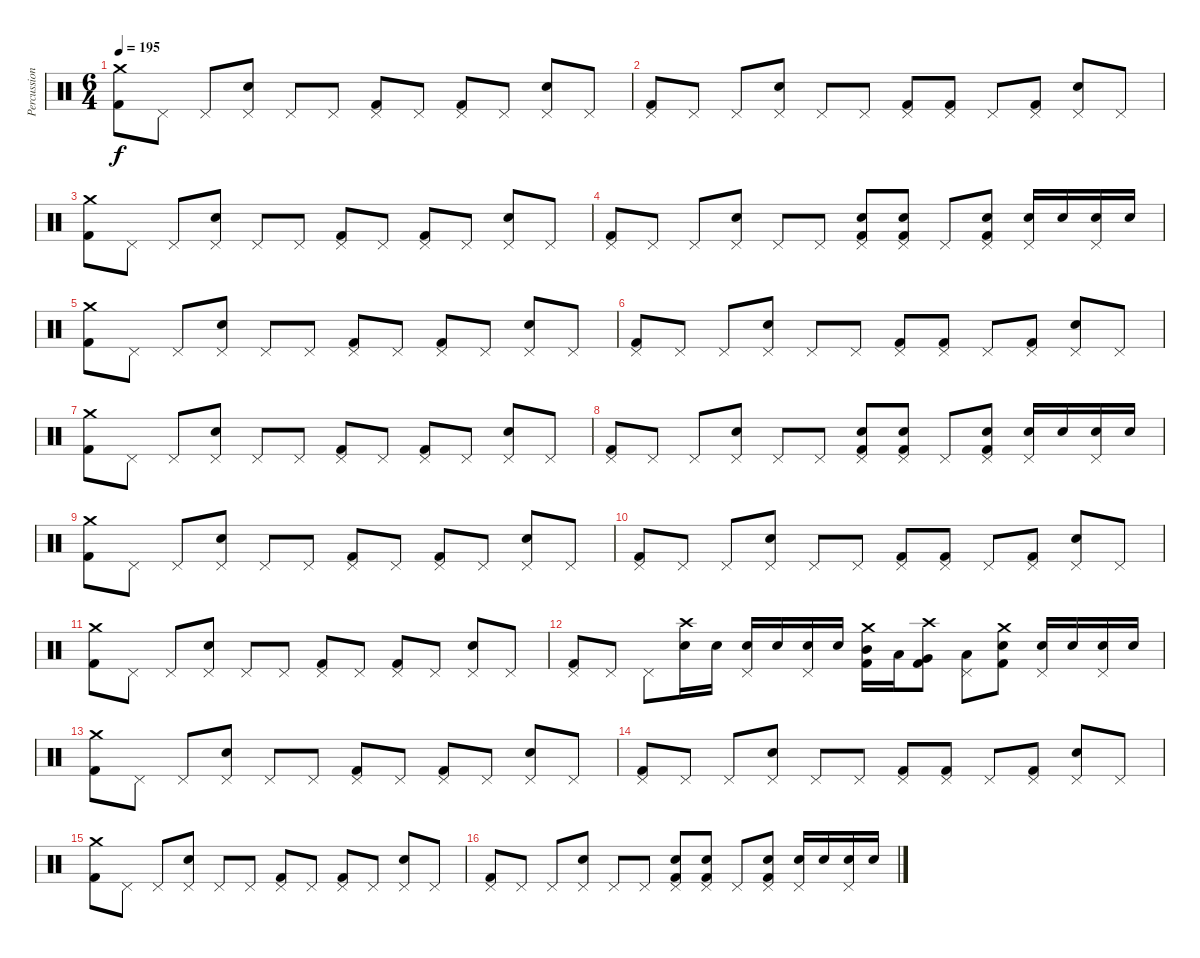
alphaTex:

\track ("Percussion" "Percussion") {instrument percussion}
\staff {score}
\articulation defaults
\ts (6 4)
\tempo 195
\clef neutral
\ks c
("Crash medium (hit)" "Kick (hit) 2").8{dy f} "Pedal Hi-Hat (hit)".8 "Pedal Hi-Hat (hit)".8 ("Pedal Hi-Hat (hit)" "Electric Snare (hit)").8 "Pedal Hi-Hat (hit)".8 "Pedal Hi-Hat (hit)".8 ("Pedal Hi-Hat (hit)" "Kick (hit) 2").8 "Pedal Hi-Hat (hit)".8 ("Pedal Hi-Hat (hit)" "Kick (hit) 2").8 "Pedal Hi-Hat (hit)".8 ("Pedal Hi-Hat (hit)" "Electric Snare (hit)").8 "Pedal Hi-Hat (hit)".8 |
("Pedal Hi-Hat (hit)" "Kick (hit) 2").8 "Pedal Hi-Hat (hit)".8 "Pedal Hi-Hat (hit)".8 ("Pedal Hi-Hat (hit)" "Electric Snare (hit)").8 "Pedal Hi-Hat (hit)".8 "Pedal Hi-Hat (hit)".8 ("Pedal Hi-Hat (hit)" "Kick (hit) 2").8 ("Pedal Hi-Hat (hit)" "Kick (hit) 2").8 "Pedal Hi-Hat (hit)".8 ("Pedal Hi-Hat (hit)" "Kick (hit) 2").8 ("Pedal Hi-Hat (hit)" "Electric Snare (hit)").8 "Pedal Hi-Hat (hit)".8 |
("Crash medium (hit)" "Kick (hit) 2").8 "Pedal Hi-Hat (hit)".8 "Pedal Hi-Hat (hit)".8 ("Pedal Hi-Hat (hit)" "Electric Snare (hit)").8 "Pedal Hi-Hat (hit)".8 "Pedal Hi-Hat (hit)".8 ("Pedal Hi-Hat (hit)" "Kick (hit) 2").8 "Pedal Hi-Hat (hit)".8 ("Pedal Hi-Hat (hit)" "Kick (hit) 2").8 "Pedal Hi-Hat (hit)".8 ("Pedal Hi-Hat (hit)" "Electric Snare (hit)").8 "Pedal Hi-Hat (hit)".8 |
("Pedal Hi-Hat (hit)" "Kick (hit) 2").8 "Pedal Hi-Hat (hit)".8 "Pedal Hi-Hat (hit)".8 ("Pedal Hi-Hat (hit)" "Electric Snare (hit)").8 "Pedal Hi-Hat (hit)".8 "Pedal Hi-Hat (hit)".8 ("Pedal Hi-Hat (hit)" "Electric Snare (hit)" "Kick (hit) 2").8 ("Pedal Hi-Hat (hit)" "Electric Snare (hit)" "Kick (hit) 2").8 "Pedal Hi-Hat (hit)".8 ("Pedal Hi-Hat (hit)" "Electric Snare (hit)" "Kick (hit) 2").8 ("Pedal Hi-Hat (hit)" "Electric Snare (hit)").16 "Electric Snare (hit)".16 ("Pedal Hi-Hat (hit)" "Electric Snare (hit)").16 "Electric Snare (hit)".16 |
("Crash medium (hit)" "Kick (hit) 2").8 "Pedal Hi-Hat (hit)".8 "Pedal Hi-Hat (hit)".8 ("Pedal Hi-Hat (hit)" "Electric Snare (hit)").8 "Pedal Hi-Hat (hit)".8 "Pedal Hi-Hat (hit)".8 ("Pedal Hi-Hat (hit)" "Kick (hit) 2").8 "Pedal Hi-Hat (hit)".8 ("Pedal Hi-Hat (hit)" "Kick (hit) 2").8 "Pedal Hi-Hat (hit)".8 ("Pedal Hi-Hat (hit)" "Electric Snare (hit)").8 "Pedal Hi-Hat (hit)".8 |
("Pedal Hi-Hat (hit)" "Kick (hit) 2").8 "Pedal Hi-Hat (hit)".8 "Pedal Hi-Hat (hit)".8 ("Pedal Hi-Hat (hit)" "Electric Snare (hit)").8 "Pedal Hi-Hat (hit)".8 "Pedal Hi-Hat (hit)".8 ("Pedal Hi-Hat (hit)" "Kick (hit) 2").8 ("Pedal Hi-Hat (hit)" "Kick (hit) 2").8 "Pedal Hi-Hat (hit)".8 ("Pedal Hi-Hat (hit)" "Kick (hit) 2").8 ("Pedal Hi-Hat (hit)" "Electric Snare (hit)").8 "Pedal Hi-Hat (hit)".8 |
("Crash medium (hit)" "Kick (hit) 2").8 "Pedal Hi-Hat (hit)".8 "Pedal Hi-Hat (hit)".8 ("Pedal Hi-Hat (hit)" "Electric Snare (hit)").8 "Pedal Hi-Hat (hit)".8 "Pedal Hi-Hat (hit)".8 ("Pedal Hi-Hat (hit)" "Kick (hit) 2").8 "Pedal Hi-Hat (hit)".8 ("Pedal Hi-Hat (hit)" "Kick (hit) 2").8 "Pedal Hi-Hat (hit)".8 ("Pedal Hi-Hat (hit)" "Electric Snare (hit)").8 "Pedal Hi-Hat (hit)".8 |
("Pedal Hi-Hat (hit)" "Kick (hit) 2").8 "Pedal Hi-Hat (hit)".8 "Pedal Hi-Hat (hit)".8 ("Pedal Hi-Hat (hit)" "Electric Snare (hit)").8 "Pedal Hi-Hat (hit)".8 "Pedal Hi-Hat (hit)".8 ("Pedal Hi-Hat (hit)" "Electric Snare (hit)" "Kick (hit) 2").8 ("Pedal Hi-Hat (hit)" "Electric Snare (hit)" "Kick (hit) 2").8 "Pedal Hi-Hat (hit)".8 ("Pedal Hi-Hat (hit)" "Electric Snare (hit)" "Kick (hit) 2").8 ("Pedal Hi-Hat (hit)" "Electric Snare (hit)").16 "Electric Snare (hit)".16 ("Pedal Hi-Hat (hit)" "Electric Snare (hit)").16 "Electric Snare (hit)".16 |
("Crash medium (hit)" "Kick (hit) 2").8 "Pedal Hi-Hat (hit)".8 "Pedal Hi-Hat (hit)".8 ("Pedal Hi-Hat (hit)" "Electric Snare (hit)").8 "Pedal Hi-Hat (hit)".8 "Pedal Hi-Hat (hit)".8 ("Pedal Hi-Hat (hit)" "Kick (hit) 2").8 "Pedal Hi-Hat (hit)".8 ("Pedal Hi-Hat (hit)" "Kick (hit) 2").8 "Pedal Hi-Hat (hit)".8 ("Pedal Hi-Hat (hit)" "Electric Snare (hit)").8 "Pedal Hi-Hat (hit)".8 |
("Pedal Hi-Hat (hit)" "Kick (hit) 2").8 "Pedal Hi-Hat (hit)".8 "Pedal Hi-Hat (hit)".8 ("Pedal Hi-Hat (hit)" "Electric Snare (hit)").8 "Pedal Hi-Hat (hit)".8 "Pedal Hi-Hat (hit)".8 ("Pedal Hi-Hat (hit)" "Kick (hit) 2").8 ("Pedal Hi-Hat (hit)" "Kick (hit) 2").8 "Pedal Hi-Hat (hit)".8 ("Pedal Hi-Hat (hit)" "Kick (hit) 2").8 ("Pedal Hi-Hat (hit)" "Electric Snare (hit)").8 "Pedal Hi-Hat (hit)".8 |
("Crash medium (hit)" "Kick (hit) 2").8 "Pedal Hi-Hat (hit)".8 "Pedal Hi-Hat (hit)".8 ("Pedal Hi-Hat (hit)" "Electric Snare (hit)").8 "Pedal Hi-Hat (hit)".8 "Pedal Hi-Hat (hit)".8 ("Pedal Hi-Hat (hit)" "Kick (hit) 2").8 "Pedal Hi-Hat (hit)".8 ("Pedal Hi-Hat (hit)" "Kick (hit) 2").8 "Pedal Hi-Hat (hit)".8 ("Pedal Hi-Hat (hit)" "Electric Snare (hit)").8 "Pedal Hi-Hat (hit)".8 |
("Pedal Hi-Hat (hit)" "Kick (hit) 2").8 "Pedal Hi-Hat (hit)".8 "Pedal Hi-Hat (hit)".8 ("Crash high (hit)" "Electric Snare (hit)").16 "Electric Snare (hit)".16 ("Pedal Hi-Hat (hit)" "Electric Snare (hit)").16 "Electric Snare (hit)".16 ("Pedal Hi-Hat (hit)" "Electric Snare (hit)").16 "Electric Snare (hit)".16 ("Crash medium (hit)" "Mid Tom (hit)" "Kick (hit) 2").16 "Low Tom (hit)".16 ("Crash high (hit)" "Very Low Tom (hit)" "Kick (hit) 2").8 ("Pedal Hi-Hat (hit)" "Low Floor Tom (hit)").8 ("Crash medium (hit)" "Electric Snare (hit)" "Kick (hit) 2").8 ("Pedal Hi-Hat (hit)" "Electric Snare (hit)").16 "Electric Snare (hit)".16 ("Pedal Hi-Hat (hit)" "Electric Snare (hit)").16 "Electric Snare (hit)".16 |
("Crash medium (hit)" "Kick (hit) 2").8 "Pedal Hi-Hat (hit)".8 "Pedal Hi-Hat (hit)".8 ("Pedal Hi-Hat (hit)" "Electric Snare (hit)").8 "Pedal Hi-Hat (hit)".8 "Pedal Hi-Hat (hit)".8 ("Pedal Hi-Hat (hit)" "Kick (hit) 2").8 "Pedal Hi-Hat (hit)".8 ("Pedal Hi-Hat (hit)" "Kick (hit) 2").8 "Pedal Hi-Hat (hit)".8 ("Pedal Hi-Hat (hit)" "Electric Snare (hit)").8 "Pedal Hi-Hat (hit)".8 |
("Pedal Hi-Hat (hit)" "Kick (hit) 2").8 "Pedal Hi-Hat (hit)".8 "Pedal Hi-Hat (hit)".8 ("Pedal Hi-Hat (hit)" "Electric Snare (hit)").8 "Pedal Hi-Hat (hit)".8 "Pedal Hi-Hat (hit)".8 ("Pedal Hi-Hat (hit)" "Kick (hit) 2").8 ("Pedal Hi-Hat (hit)" "Kick (hit) 2").8 "Pedal Hi-Hat (hit)".8 ("Pedal Hi-Hat (hit)" "Kick (hit) 2").8 ("Pedal Hi-Hat (hit)" "Electric Snare (hit)").8 "Pedal Hi-Hat (hit)".8 |
("Crash medium (hit)" "Kick (hit) 2").8 "Pedal Hi-Hat (hit)".8 "Pedal Hi-Hat (hit)".8 ("Pedal Hi-Hat (hit)" "Electric Snare (hit)").8 "Pedal Hi-Hat (hit)".8 "Pedal Hi-Hat (hit)".8 ("Pedal Hi-Hat (hit)" "Kick (hit) 2").8 "Pedal Hi-Hat (hit)".8 ("Pedal Hi-Hat (hit)" "Kick (hit) 2").8 "Pedal Hi-Hat (hit)".8 ("Pedal Hi-Hat (hit)" "Electric Snare (hit)").8 "Pedal Hi-Hat (hit)".8 |
("Pedal Hi-Hat (hit)" "Kick (hit) 2").8 "Pedal Hi-Hat (hit)".8 "Pedal Hi-Hat (hit)".8 ("Pedal Hi-Hat (hit)" "Electric Snare (hit)").8 "Pedal Hi-Hat (hit)".8 "Pedal Hi-Hat (hit)".8 ("Pedal Hi-Hat (hit)" "Electric Snare (hit)" "Kick (hit) 2").8 ("Pedal Hi-Hat (hit)" "Electric Snare (hit)" "Kick (hit) 2").8 "Pedal Hi-Hat (hit)".8 ("Pedal Hi-Hat (hit)" "Electric Snare (hit)" "Kick (hit) 2").8 ("Pedal Hi-Hat (hit)" "Electric Snare (hit)").16 "Electric Snare (hit)".16 ("Pedal Hi-Hat (hit)" "Electric Snare (hit)").16 "Electric Snare (hit)".16
